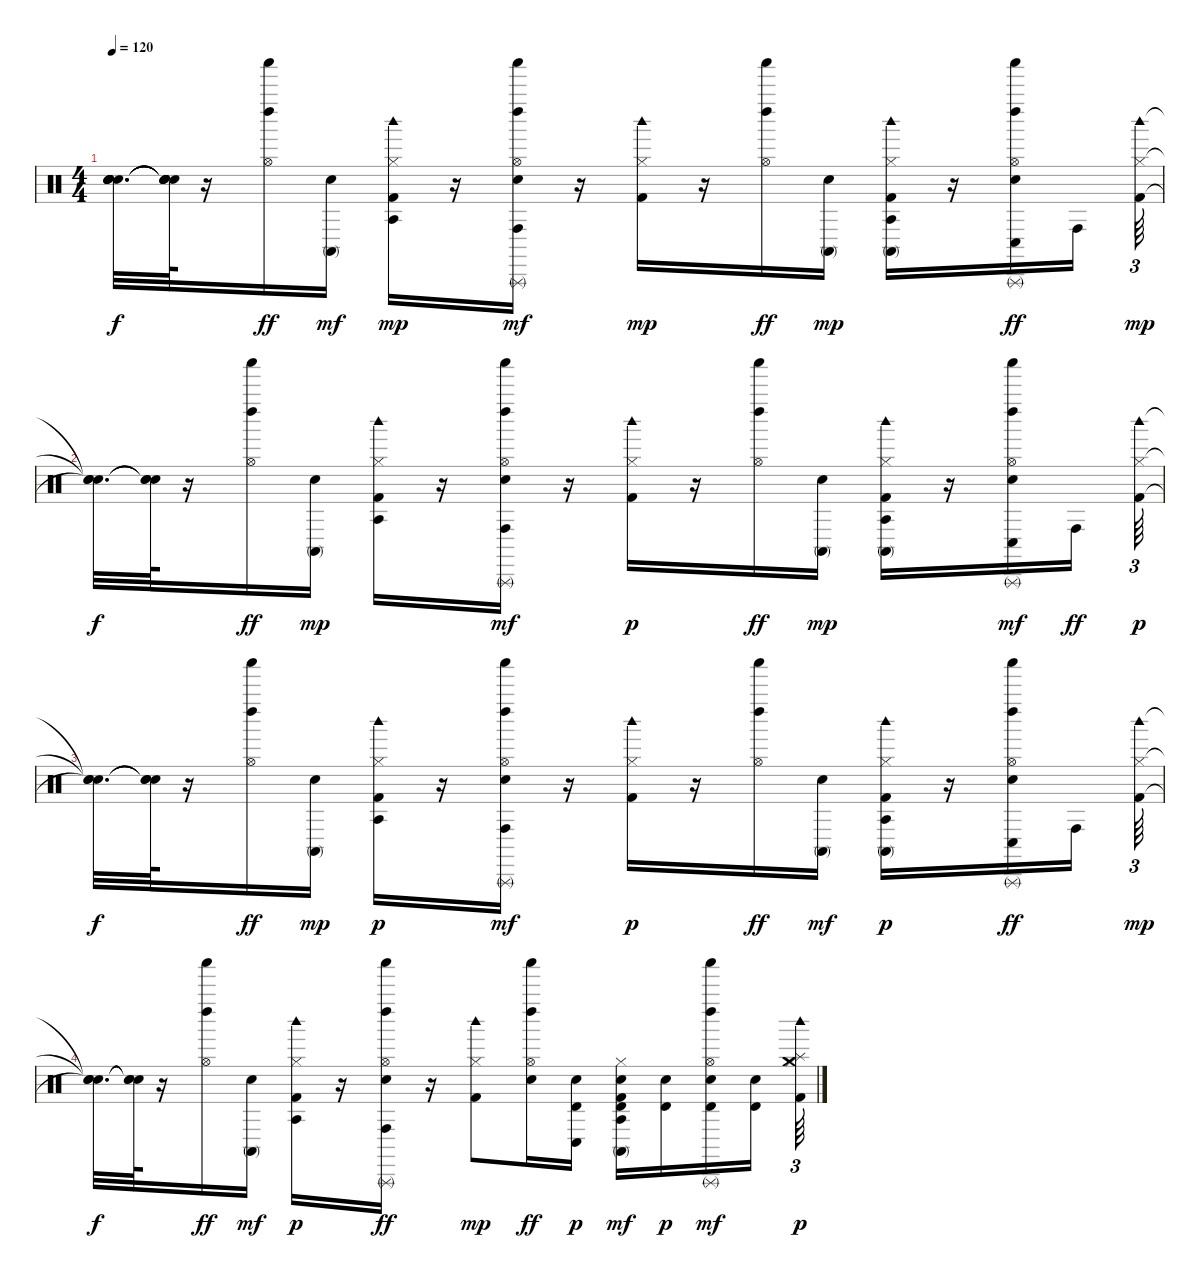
\track "" {instrument percussion}
\staff {score}
\articulation defaults
\ts (4 4)
\tempo 120
\clef neutral
\ks c
("Snare (hit)"{t} "Snare (hit)"{t} "Snare (hit)"{t} "Snare (hit)"{t} "Snare (hit)"{t}).32{d dy f} ("Snare (hit)"{t} "Snare (hit)"{t} "Snare (hit)"{t} "Snare (hit)"{t} "Snare (hit)"{t}).64 r.16 ("Shaker (hit)" "Left Maraca (hit)" "Hi-Hat (open)").16{dy ff} ("Electric Snare (hit)" "Conga high (mute)").16{dy mf} ("Kick (hit) 2" "Hi-Hat (closed)" "Agogo tow (hit)" "Woodblock high (hit)").16{dy mp} r.16 ("Shaker (hit)" "Left Maraca (hit)" "Electric Snare (hit)" "Conga high (hit)" "Hi-Hat (open)" "Triangle (rnute)").16{dy mf} r.16 ("Kick (hit) 2" "Hi-Hat (closed)" "Woodblock high (hit)").16{dy mp} r.16 ("Shaker (hit)" "Left Maraca (hit)" "Hi-Hat (open)").16{dy ff} ("Electric Snare (hit)" "Conga high (mute)").16{dy mp} ("Kick (hit) 2" "Conga high (mute)" "Hi-Hat (closed)" "Agogo tow (hit)" "Woodblock high (hit)").16 r.16 ("Shaker (hit)" "Left Maraca (hit)" "Electric Snare (hit)" "Conga low (hit)" "Hi-Hat (open)" "Triangle (rnute)").16{dy ff} "Conga high (hit)".16 ("Kick (hit) 2" "Hi-Hat (closed)" "Woodblock high (hit)").64{tu (3 2) dy mp} |
("Snare (hit)"{t} "Snare (hit)"{t} "Snare (hit)"{t}).32{d dy f} ("Snare (hit)"{t} "Snare (hit)"{t} "Snare (hit)"{t}).64 r.16 ("Shaker (hit)" "Left Maraca (hit)" "Hi-Hat (open)").16{dy ff} ("Electric Snare (hit)" "Conga high (mute)").16{dy mp} ("Kick (hit) 2" "Hi-Hat (closed)" "Agogo tow (hit)" "Woodblock high (hit)").16 r.16 ("Shaker (hit)" "Left Maraca (hit)" "Electric Snare (hit)" "Conga high (hit)" "Hi-Hat (open)" "Triangle (rnute)").16{dy mf} r.16 ("Kick (hit) 2" "Hi-Hat (closed)" "Woodblock high (hit)").16{dy p} r.16 ("Shaker (hit)" "Left Maraca (hit)" "Hi-Hat (open)").16{dy ff} ("Electric Snare (hit)" "Conga high (mute)").16{dy mp} ("Kick (hit) 2" "Conga high (mute)" "Hi-Hat (closed)" "Agogo tow (hit)" "Woodblock high (hit)").16 r.16 ("Shaker (hit)" "Left Maraca (hit)" "Electric Snare (hit)" "Conga low (hit)" "Hi-Hat (open)" "Triangle (rnute)").16{dy mf} "Conga high (hit)".16{dy ff} ("Kick (hit) 2" "Hi-Hat (closed)" "Woodblock high (hit)").64{tu (3 2) dy p} |
("Snare (hit)"{t} "Snare (hit)"{t} "Snare (hit)"{t}).32{d dy f} ("Snare (hit)"{t} "Snare (hit)"{t} "Snare (hit)"{t}).64 r.16 ("Shaker (hit)" "Left Maraca (hit)" "Hi-Hat (open)").16{dy ff} ("Electric Snare (hit)" "Conga high (mute)").16{dy mp} ("Kick (hit) 2" "Hi-Hat (closed)" "Agogo tow (hit)" "Woodblock high (hit)").16{dy p} r.16 ("Shaker (hit)" "Left Maraca (hit)" "Electric Snare (hit)" "Conga high (hit)" "Hi-Hat (open)" "Triangle (rnute)").16{dy mf} r.16 ("Kick (hit) 2" "Hi-Hat (closed)" "Woodblock high (hit)").16{dy p} r.16 ("Shaker (hit)" "Left Maraca (hit)" "Hi-Hat (open)").16{dy ff} ("Electric Snare (hit)" "Conga high (mute)").16{dy mf} ("Kick (hit) 2" "Conga high (mute)" "Hi-Hat (closed)" "Agogo tow (hit)" "Woodblock high (hit)").16{dy p} r.16 ("Shaker (hit)" "Left Maraca (hit)" "Electric Snare (hit)" "Conga low (hit)" "Hi-Hat (open)" "Triangle (rnute)").16{dy ff} "Conga high (hit)".16 ("Kick (hit) 2" "Hi-Hat (closed)" "Woodblock high (hit)").64{tu (3 2) dy mp} |
("Snare (hit)"{t} "Snare (hit)"{t} "Snare (hit)"{t}).32{d dy f} ("Snare (hit)"{t} "Snare (hit)"{t} "Snare (hit)"{t}).64 r.16 ("Shaker (hit)" "Left Maraca (hit)" "Hi-Hat (open)").16{dy ff} ("Electric Snare (hit)" "Conga high (mute)").16{dy mf} ("Kick (hit) 2" "Hi-Hat (closed)" "Agogo tow (hit)" "Woodblock high (hit)").16{dy p} r.16 ("Shaker (hit)" "Left Maraca (hit)" "Electric Snare (hit)" "Conga high (hit)" "Hi-Hat (open)" "Triangle (rnute)").16{dy ff} r.16 ("Kick (hit) 2" "Hi-Hat (closed)" "Woodblock high (hit)").8{dy mp} ("Shaker (hit)" "Left Maraca (hit)" "Electric Snare (hit)" "Hi-Hat (open)").16{dy ff} ("Electric Snare (hit)" "Conga low (hit)" "Timbale high (hit)").16{dy p} ("Kick (hit) 2" "Electric Snare (hit)" "Conga high (mute)" "Hi-Hat (closed)" "Timbale high (hit)" "Agogo tow (hit)").16{dy mf} ("Electric Snare (hit)" "Timbale high (hit)").16{dy p} ("Shaker (hit)" "Left Maraca (hit)" "Electric Snare (hit)" "Hi-Hat (open)" "Timbale high (hit)" "Triangle (rnute)").16{dy mf} ("Electric Snare (hit)" "Timbale high (hit)").16 ("Kick (hit) 2" "Hi-Hat (closed)" "Crash medium (hit)" "Splash (hit)" "Woodblock high (hit)").64{tu (3 2) dy p}
